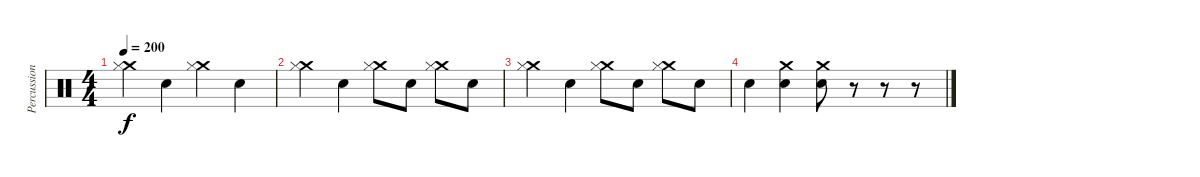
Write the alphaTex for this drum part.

\track ("Percussion" "Percussion") {instrument percussion}
\staff {score}
\articulation defaults
\ts (4 4)
\tempo 200
\clef neutral
\ks c
("Crash medium (hit)" "Hi-Hat (closed)").4{dy f} "Snare (hit) 2".4 ("Crash medium (hit)" "Hi-Hat (closed)").4 "Snare (hit) 2".4 |
("Crash medium (hit)" "Hi-Hat (closed)").4 "Snare (hit) 2".4 ("Crash medium (hit)" "Hi-Hat (closed)").8 "Snare (hit) 2".8 ("Crash medium (hit)" "Hi-Hat (closed)").8 "Snare (hit) 2".8 |
("Crash medium (hit)" "Hi-Hat (closed)").4 "Snare (hit) 2".4 ("Crash medium (hit)" "Hi-Hat (closed)").8 "Snare (hit) 2".8 ("Crash medium (hit)" "Hi-Hat (closed)").8 "Snare (hit) 2".8 |
"Snare (hit) 2".4 ("Crash medium (hit)" "Snare (hit) 2").4 ("Crash medium (hit)" "Snare (hit) 2").8 r.8 r.8 r.8
